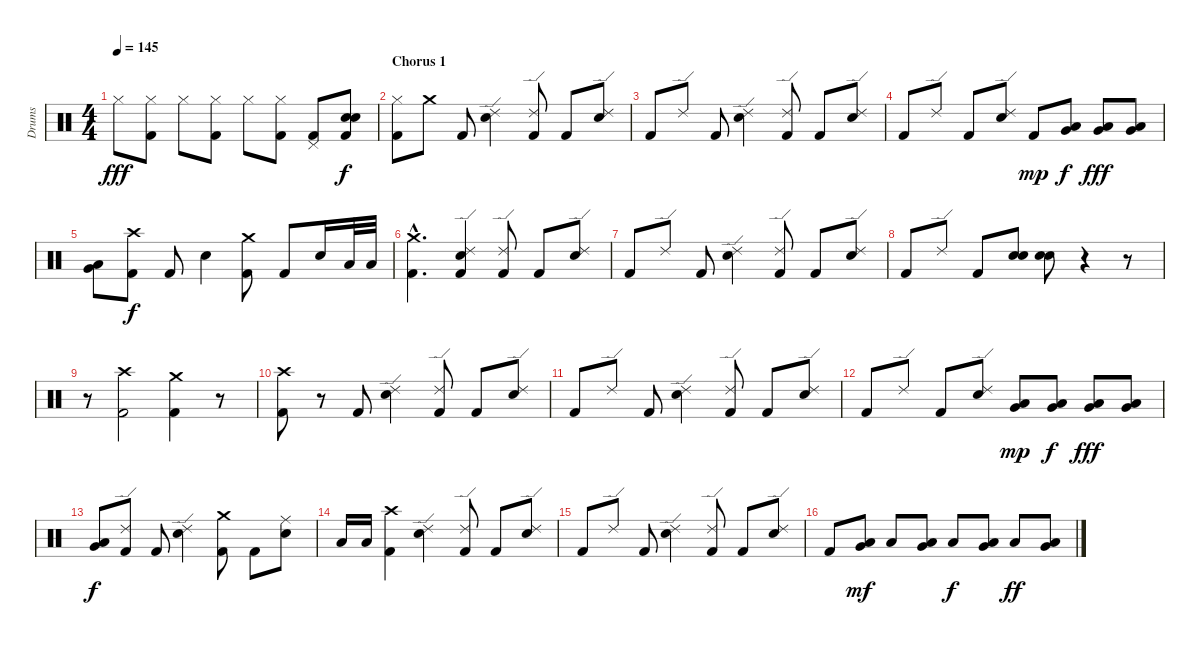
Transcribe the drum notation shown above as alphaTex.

\track ("Drums" "Drums") {instrument percussion}
\staff {score}
\articulation defaults
\ts (4 4)
\tempo 145
\clef neutral
\ks c "Hi-Hat (closed)".8{dy fff}
("Hi-Hat (closed)" "Kick (hit) 2").8 "Hi-Hat (closed)".8 ("Hi-Hat (closed)" "Kick (hit) 2").8 "Hi-Hat (closed)".8 ("Hi-Hat (closed)" "Kick (hit) 2").8 ("Pedal Hi-Hat (hit)" "Kick (hit) 2").8 ("Snare (hit) 2" "Snare (hit) 2" "Kick (hit) 2").8{dy f} |
\section ("" "Chorus 1")
("Hi-Hat (closed)" "Kick (hit) 2").8 "Crash medium (hit)".8 "Kick (hit) 2".8 ("Ride (edge) 2" "Snare (hit) 2").4 ("Ride (edge) 2" "Kick (hit) 2").8 "Kick (hit) 2".8 ("Ride (edge) 2" "Snare (hit) 2").8 |
"Kick (hit) 2".8 "Ride (edge) 2".8 "Kick (hit) 2".8 ("Ride (edge) 2" "Snare (hit) 2").4 ("Ride (edge) 2" "Kick (hit) 2").8 "Kick (hit) 2".8 ("Ride (edge) 2" "Snare (hit) 2").8 |
"Kick (hit) 2".8 "Ride (edge) 2".8 "Kick (hit) 2".8 ("Ride (edge) 2" "Snare (hit) 2").8 "Kick (hit) 2".8{dy mp} ("Low Floor Tom (hit)" "Very Low Tom (hit)").8{dy f} ("Low Floor Tom (hit)" "Very Low Tom (hit)").8{dy fff} ("Low Floor Tom (hit)" "Very Low Tom (hit)").8 |
("Low Floor Tom (hit)" "Very Low Tom (hit)").8 ("Crash high (hit)" "Kick (hit) 2").8{dy f} "Kick (hit) 2".8 "Snare (hit) 2".4 ("Crash medium (hit)" "Kick (hit) 2").8 "Kick (hit) 2".8 "Snare (hit) 2".16 "Low Floor Tom (hit)".32 "Low Floor Tom (hit)".32 |
("Crash medium (hit)"{hac} "Kick (hit) 2"{hac}).4{d} ("Ride (edge) 2" "Snare (hit) 2" "Kick (hit) 2").4 ("Ride (edge) 2" "Kick (hit) 2").8 "Kick (hit) 2".8 ("Ride (edge) 2" "Snare (hit) 2").8 |
"Kick (hit) 2".8 "Ride (edge) 2".8 "Kick (hit) 2".8 ("Ride (edge) 2" "Snare (hit) 2").4 ("Ride (edge) 2" "Kick (hit) 2").8 "Kick (hit) 2".8 ("Ride (edge) 2" "Snare (hit) 2").8 |
"Kick (hit) 2".8 "Ride (edge) 2".8 "Kick (hit) 2".8 ("Snare (hit) 2" "Snare (hit) 2").8 ("Snare (hit) 2" "Snare (hit) 2").8 r.4 r.8 |
r.8 ("Crash high (hit)" "Kick (hit) 2").2 ("Crash medium (hit)" "Kick (hit) 2").4 r.8 |
("Crash high (hit)" "Kick (hit) 2").8 r.8 "Kick (hit) 2".8 ("Ride (edge) 2" "Snare (hit) 2").4 ("Ride (edge) 2" "Kick (hit) 2").8 "Kick (hit) 2".8 ("Ride (edge) 2" "Snare (hit) 2").8 |
"Kick (hit) 2".8 "Ride (edge) 2".8 "Kick (hit) 2".8 ("Ride (edge) 2" "Snare (hit) 2").4 ("Ride (edge) 2" "Kick (hit) 2").8 "Kick (hit) 2".8 ("Ride (edge) 2" "Snare (hit) 2").8 |
"Kick (hit) 2".8 "Ride (edge) 2".8 "Kick (hit) 2".8 ("Ride (edge) 2" "Snare (hit) 2").8 ("Low Floor Tom (hit)" "Very Low Tom (hit)").8{dy mp} ("Low Floor Tom (hit)" "Very Low Tom (hit)").8{dy f} ("Low Floor Tom (hit)" "Very Low Tom (hit)").8{dy fff} ("Low Floor Tom (hit)" "Very Low Tom (hit)").8 |
("Low Floor Tom (hit)" "Very Low Tom (hit)").8{dy f} ("Ride (edge) 2" "Kick (hit) 2").8 "Kick (hit) 2".8 ("Ride (edge) 2" "Snare (hit) 2").4 ("Crash medium (hit)" "Kick (hit) 2").8 "Kick (hit) 2".8 ("Ride (middle)" "Snare (hit) 2").8 |
"Low Floor Tom (hit)".16 "Low Floor Tom (hit)".16 ("Crash high (hit)" "Kick (hit) 2").4 ("Ride (edge) 2" "Snare (hit) 2").4 ("Ride (edge) 2" "Kick (hit) 2").8 "Kick (hit) 2".8 ("Ride (edge) 2" "Snare (hit) 2").8 |
"Kick (hit) 2".8 "Ride (edge) 2".8 "Kick (hit) 2".8 ("Ride (edge) 2" "Snare (hit) 2").4 ("Ride (edge) 2" "Kick (hit) 2").8 "Kick (hit) 2".8 ("Ride (edge) 2" "Snare (hit) 2").8 |
"Kick (hit) 2".8 ("Low Floor Tom (hit)" "Very Low Tom (hit)").8{dy mf} "Low Floor Tom (hit)".8 ("Low Floor Tom (hit)" "Very Low Tom (hit)").8 "Low Floor Tom (hit)".8{dy f} ("Low Floor Tom (hit)" "Very Low Tom (hit)").8 "Low Floor Tom (hit)".8{dy ff} ("Low Floor Tom (hit)" "Very Low Tom (hit)").8
